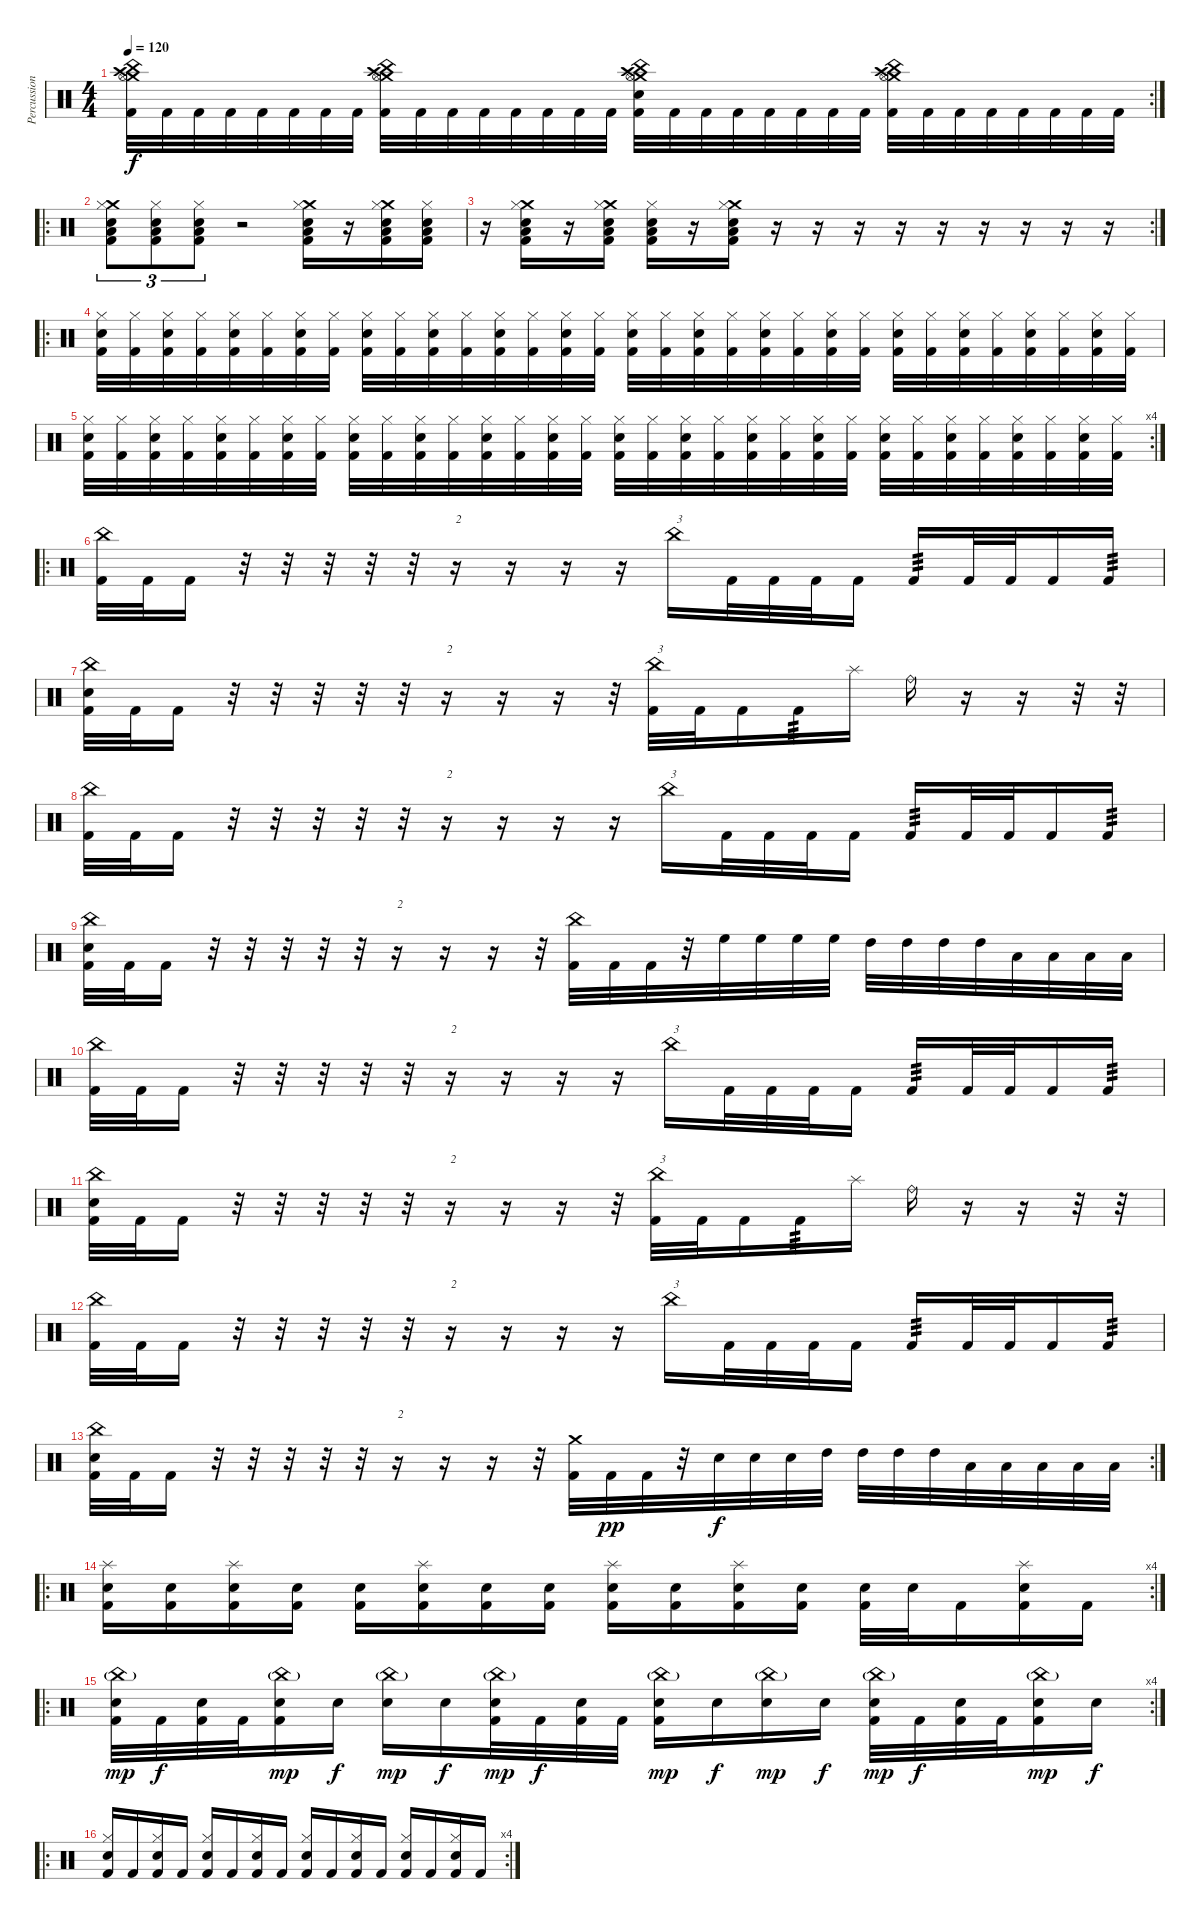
\track ("Percussions" "Percussion") {instrument percussion}
\staff {score}
\articulation defaults
\rc 2
\ts (4 4)
\tempo 120
\clef neutral
\ks c
("Crash medium (hit)" "Crash high (hit)" "China (hit)" "Hi-Hat (open)" "Kick (hit) 2").32{dy f} "Kick (hit) 2".32 "Kick (hit) 2".32 "Kick (hit) 2".32 "Kick (hit) 2".32 "Kick (hit) 2".32 "Kick (hit) 2".32 "Kick (hit) 2".32 ("Crash medium (hit)" "Crash high (hit)" "China (hit)" "Hi-Hat (open)" "Kick (hit) 2").32 "Kick (hit) 2".32 "Kick (hit) 2".32 "Kick (hit) 2".32 "Kick (hit) 2".32 "Kick (hit) 2".32 "Kick (hit) 2".32 "Kick (hit) 2".32 ("Crash medium (hit)" "Crash high (hit)" "China (hit)" "Hi-Hat (open)" "Electric Snare (hit)" "Kick (hit) 2").32 "Kick (hit) 2".32 "Kick (hit) 2".32 "Kick (hit) 2".32 "Kick (hit) 2".32 "Kick (hit) 2".32 "Kick (hit) 2".32 "Kick (hit) 2".32 ("Crash medium (hit)" "Crash high (hit)" "China (hit)" "Hi-Hat (open)" "Kick (hit) 2").32 "Kick (hit) 2".32 "Kick (hit) 2".32 "Kick (hit) 2".32 "Kick (hit) 2".32 "Kick (hit) 2".32 "Kick (hit) 2".32 "Kick (hit) 2".32 |
\ro
("Crash medium (hit)" "Low Floor Tom (hit)" "Hi-Hat (closed)" "Electric Snare (hit)" "Kick (hit) 2").8{tu (3 2)} ("Low Floor Tom (hit)" "Hi-Hat (closed)" "Electric Snare (hit)" "Kick (hit) 2").8{tu (3 2)} ("Low Floor Tom (hit)" "Hi-Hat (closed)" "Electric Snare (hit)" "Kick (hit) 2").8{tu (3 2)} r.2 ("Crash medium (hit)" "Low Floor Tom (hit)" "Hi-Hat (closed)" "Electric Snare (hit)" "Kick (hit) 2").16 r.16 ("Crash medium (hit)" "Low Floor Tom (hit)" "Hi-Hat (closed)" "Electric Snare (hit)" "Kick (hit) 2").16 ("Low Floor Tom (hit)" "Hi-Hat (closed)" "Electric Snare (hit)" "Kick (hit) 2").16 |
\rc 2
r.16 ("Crash medium (hit)" "Low Floor Tom (hit)" "Hi-Hat (closed)" "Electric Snare (hit)" "Kick (hit) 2").16 r.16 ("Crash medium (hit)" "Low Floor Tom (hit)" "Hi-Hat (closed)" "Electric Snare (hit)" "Kick (hit) 2").16 ("Low Floor Tom (hit)" "Hi-Hat (closed)" "Electric Snare (hit)" "Kick (hit) 2").16 r.16 ("Crash medium (hit)" "Low Floor Tom (hit)" "Hi-Hat (closed)" "Electric Snare (hit)" "Kick (hit) 2").16 r.16 r.16 r.16 r.16 r.16 r.16 r.16 r.16 r.16 |
\ro
("Kick (hit) 2" "Electric Snare (hit)" "Hi-Hat (closed)").32 ("Kick (hit) 2" "Hi-Hat (closed)").32 ("Kick (hit) 2" "Electric Snare (hit)" "Hi-Hat (closed)").32 ("Kick (hit) 2" "Hi-Hat (closed)").32 ("Kick (hit) 2" "Electric Snare (hit)" "Hi-Hat (closed)").32 ("Kick (hit) 2" "Hi-Hat (closed)").32 ("Kick (hit) 2" "Electric Snare (hit)" "Hi-Hat (closed)").32 ("Kick (hit) 2" "Hi-Hat (closed)").32 ("Kick (hit) 2" "Electric Snare (hit)" "Hi-Hat (closed)").32 ("Kick (hit) 2" "Hi-Hat (closed)").32 ("Kick (hit) 2" "Electric Snare (hit)" "Hi-Hat (closed)").32 ("Kick (hit) 2" "Hi-Hat (closed)").32 ("Kick (hit) 2" "Electric Snare (hit)" "Hi-Hat (closed)").32 ("Kick (hit) 2" "Hi-Hat (closed)").32 ("Kick (hit) 2" "Electric Snare (hit)" "Hi-Hat (closed)").32 ("Kick (hit) 2" "Hi-Hat (closed)").32 ("Kick (hit) 2" "Electric Snare (hit)" "Hi-Hat (closed)").32 ("Kick (hit) 2" "Hi-Hat (closed)").32 ("Kick (hit) 2" "Electric Snare (hit)" "Hi-Hat (closed)").32 ("Kick (hit) 2" "Hi-Hat (closed)").32 ("Kick (hit) 2" "Electric Snare (hit)" "Hi-Hat (closed)").32 ("Kick (hit) 2" "Hi-Hat (closed)").32 ("Kick (hit) 2" "Electric Snare (hit)" "Hi-Hat (closed)").32 ("Kick (hit) 2" "Hi-Hat (closed)").32 ("Kick (hit) 2" "Electric Snare (hit)" "Hi-Hat (closed)").32 ("Kick (hit) 2" "Hi-Hat (closed)").32 ("Kick (hit) 2" "Electric Snare (hit)" "Hi-Hat (closed)").32 ("Kick (hit) 2" "Hi-Hat (closed)").32 ("Kick (hit) 2" "Electric Snare (hit)" "Hi-Hat (closed)").32 ("Kick (hit) 2" "Hi-Hat (closed)").32 ("Kick (hit) 2" "Electric Snare (hit)" "Hi-Hat (closed)").32 ("Kick (hit) 2" "Hi-Hat (closed)").32 |
\rc 4
("Kick (hit) 2" "Electric Snare (hit)" "Hi-Hat (closed)").32 ("Kick (hit) 2" "Hi-Hat (closed)").32 ("Kick (hit) 2" "Electric Snare (hit)" "Hi-Hat (closed)").32 ("Kick (hit) 2" "Hi-Hat (closed)").32 ("Kick (hit) 2" "Electric Snare (hit)" "Hi-Hat (closed)").32 ("Kick (hit) 2" "Hi-Hat (closed)").32 ("Kick (hit) 2" "Electric Snare (hit)" "Hi-Hat (closed)").32 ("Kick (hit) 2" "Hi-Hat (closed)").32 ("Kick (hit) 2" "Electric Snare (hit)" "Hi-Hat (closed)").32 ("Kick (hit) 2" "Hi-Hat (closed)").32 ("Kick (hit) 2" "Electric Snare (hit)" "Hi-Hat (closed)").32 ("Kick (hit) 2" "Hi-Hat (closed)").32 ("Kick (hit) 2" "Electric Snare (hit)" "Hi-Hat (closed)").32 ("Kick (hit) 2" "Hi-Hat (closed)").32 ("Kick (hit) 2" "Electric Snare (hit)" "Hi-Hat (closed)").32 ("Kick (hit) 2" "Hi-Hat (closed)").32 ("Kick (hit) 2" "Electric Snare (hit)" "Hi-Hat (closed)").32 ("Kick (hit) 2" "Hi-Hat (closed)").32 ("Kick (hit) 2" "Electric Snare (hit)" "Hi-Hat (closed)").32 ("Kick (hit) 2" "Hi-Hat (closed)").32 ("Kick (hit) 2" "Electric Snare (hit)" "Hi-Hat (closed)").32 ("Kick (hit) 2" "Hi-Hat (closed)").32 ("Kick (hit) 2" "Electric Snare (hit)" "Hi-Hat (closed)").32 ("Kick (hit) 2" "Hi-Hat (closed)").32 ("Kick (hit) 2" "Electric Snare (hit)" "Hi-Hat (closed)").32 ("Kick (hit) 2" "Hi-Hat (closed)").32 ("Kick (hit) 2" "Electric Snare (hit)" "Hi-Hat (closed)").32 ("Kick (hit) 2" "Hi-Hat (closed)").32 ("Kick (hit) 2" "Electric Snare (hit)" "Hi-Hat (closed)").32 ("Kick (hit) 2" "Hi-Hat (closed)").32 ("Kick (hit) 2" "Electric Snare (hit)" "Hi-Hat (closed)").32 ("Kick (hit) 2" "Hi-Hat (closed)").32 |
\ro
("China (hit)" "Kick (hit) 2").32 "Kick (hit) 2".32 "Kick (hit) 2".16 r.32{volume 0} r.32 r.32 r.32 r.32 r.16{txt "2"} r.16 r.16 r.16 "China (hit)".16{txt "3" volume 13} "Kick (hit) 2".32 "Kick (hit) 2".32 "Kick (hit) 2".32 "Kick (hit) 2".16 "Kick (hit) 2".16{tp 3} "Kick (hit) 2".32 "Kick (hit) 2".32 "Kick (hit) 2".16 "Kick (hit) 2".16{tp 3} |
("China (hit)" "Electric Snare (hit)" "Kick (hit) 2").32 "Kick (hit) 2".32 "Kick (hit) 2".16 r.32 r.32 r.32 r.32 r.32 r.16{txt "2"} r.16 r.16 r.32 ("China (hit)" "Kick (hit) 2").32{txt "3"} "Kick (hit) 2".32 "Kick (hit) 2".16 "Kick (hit) 2".16{tp 3} "Splash (hit)".16 "Ride (bell)".16 r.16 r.16 r.32 r.32 |
("China (hit)" "Kick (hit) 2").32 "Kick (hit) 2".32 "Kick (hit) 2".16 r.32{volume 0} r.32 r.32 r.32 r.32 r.16{txt "2"} r.16 r.16 r.16 "China (hit)".16{txt "3" volume 13} "Kick (hit) 2".32 "Kick (hit) 2".32 "Kick (hit) 2".32 "Kick (hit) 2".16 "Kick (hit) 2".16{tp 3} "Kick (hit) 2".32 "Kick (hit) 2".32 "Kick (hit) 2".16 "Kick (hit) 2".16{tp 3} |
("China (hit)" "Electric Snare (hit)" "Kick (hit) 2").32 "Kick (hit) 2".32 "Kick (hit) 2".16 r.32 r.32 r.32 r.32 r.32 r.16{txt "2"} r.16 r.16 r.32 ("China (hit)" "Kick (hit) 2").32 "Kick (hit) 2".32 "Kick (hit) 2".32 r.32 "High Floor Tom (hit)".32 "High Floor Tom (hit)".32 "High Floor Tom (hit)".32 "High Floor Tom (hit)".32 "High Tom (hit)".32 "High Tom (hit)".32 "High Tom (hit)".32 "High Tom (hit)".32 "Low Tom (hit)".32 "Low Tom (hit)".32 "Low Tom (hit)".32 "Low Tom (hit)".32 |
("China (hit)" "Kick (hit) 2").32 "Kick (hit) 2".32 "Kick (hit) 2".16 r.32{volume 0} r.32 r.32 r.32 r.32 r.16{txt "2"} r.16 r.16 r.16 "China (hit)".16{txt "3" volume 13} "Kick (hit) 2".32 "Kick (hit) 2".32 "Kick (hit) 2".32 "Kick (hit) 2".16 "Kick (hit) 2".16{tp 3} "Kick (hit) 2".32 "Kick (hit) 2".32 "Kick (hit) 2".16 "Kick (hit) 2".16{tp 3} |
("China (hit)" "Electric Snare (hit)" "Kick (hit) 2").32 "Kick (hit) 2".32 "Kick (hit) 2".16 r.32 r.32 r.32 r.32 r.32 r.16{txt "2"} r.16 r.16 r.32 ("China (hit)" "Kick (hit) 2").32{txt "3"} "Kick (hit) 2".32 "Kick (hit) 2".16 "Kick (hit) 2".16{tp 3} "Splash (hit)".16 "Ride (bell)".16 r.16 r.16 r.32 r.32 |
("China (hit)" "Kick (hit) 2").32 "Kick (hit) 2".32 "Kick (hit) 2".16 r.32{volume 0} r.32 r.32 r.32 r.32 r.16{txt "2"} r.16 r.16 r.16 "China (hit)".16{txt "3" volume 13} "Kick (hit) 2".32 "Kick (hit) 2".32 "Kick (hit) 2".32 "Kick (hit) 2".16 "Kick (hit) 2".16{tp 3} "Kick (hit) 2".32 "Kick (hit) 2".32 "Kick (hit) 2".16 "Kick (hit) 2".16{tp 3} |
\rc 2
("China (hit)" "Electric Snare (hit)" "Kick (hit) 2").32 "Kick (hit) 2".32 "Kick (hit) 2".16 r.32 r.32 r.32 r.32 r.32 r.16{txt "2"} r.16 r.16 r.32 ("Crash medium (hit)" "Kick (hit) 2").32 "Kick (hit) 2".32{dy pp} "Kick (hit) 2".32 r.32 "Electric Snare (hit)".32{dy f} "Electric Snare (hit)".32 "Electric Snare (hit)".32 "High Tom (hit)".32 "High Tom (hit)".32 "High Tom (hit)".32 "High Tom (hit)".32 "Low Tom (hit)".32 "Low Tom (hit)".32 "Low Tom (hit)".32 "Low Tom (hit)".32 "Low Tom (hit)".32 |
\ro
\rc 4
("Splash (hit)" "Electric Snare (hit)" "Kick (hit) 2").16 ("Electric Snare (hit)" "Kick (hit) 2").16 ("Splash (hit)" "Electric Snare (hit)" "Kick (hit) 2").16 ("Electric Snare (hit)" "Kick (hit) 2").16 ("Electric Snare (hit)" "Kick (hit) 2").16 ("Splash (hit)" "Electric Snare (hit)" "Kick (hit) 2").16 ("Electric Snare (hit)" "Kick (hit) 2").16 ("Electric Snare (hit)" "Kick (hit) 2").16 ("Splash (hit)" "Electric Snare (hit)" "Kick (hit) 2").16 ("Electric Snare (hit)" "Kick (hit) 2").16 ("Splash (hit)" "Electric Snare (hit)" "Kick (hit) 2").16 ("Electric Snare (hit)" "Kick (hit) 2").16 ("Electric Snare (hit)" "Kick (hit) 2").32 "Electric Snare (hit)".32 "Kick (hit) 2".16 ("Splash (hit)" "Electric Snare (hit)" "Kick (hit) 2").16 "Kick (hit) 2".16 |
\ro
\rc 4
("China (hit)"{g} "Electric Snare (hit)" "Kick (hit) 2").32{dy mp} "Kick (hit) 2".32{dy f} ("Electric Snare (hit)" "Kick (hit) 2").32 "Kick (hit) 2".32 ("China (hit)"{g} "Electric Snare (hit)" "Kick (hit) 2").16{dy mp} "Electric Snare (hit)".16{dy f} ("China (hit)"{g} "Electric Snare (hit)").16{dy mp} "Electric Snare (hit)".16{dy f} ("China (hit)"{g} "Electric Snare (hit)" "Kick (hit) 2").32{dy mp} "Kick (hit) 2".32{dy f} ("Electric Snare (hit)" "Kick (hit) 2").32 "Kick (hit) 2".32 ("China (hit)"{g} "Electric Snare (hit)" "Kick (hit) 2").16{dy mp} "Electric Snare (hit)".16{dy f} ("China (hit)"{g} "Electric Snare (hit)").16{dy mp} "Electric Snare (hit)".16{dy f} ("China (hit)"{g} "Electric Snare (hit)" "Kick (hit) 2").32{dy mp} "Kick (hit) 2".32{dy f} ("Electric Snare (hit)" "Kick (hit) 2").32 "Kick (hit) 2".32 ("China (hit)"{g} "Electric Snare (hit)" "Kick (hit) 2").16{dy mp} "Electric Snare (hit)".16{dy f} |
\ro
\rc 4
("Hi-Hat (closed)" "Snare (hit) 2" "Kick (hit) 2").16 "Kick (hit) 2".16 ("Hi-Hat (closed)" "Snare (hit) 2" "Kick (hit) 2").16 "Kick (hit) 2".16 ("Hi-Hat (closed)" "Snare (hit) 2" "Kick (hit) 2").16 "Kick (hit) 2".16 ("Hi-Hat (closed)" "Snare (hit) 2" "Kick (hit) 2").16 "Kick (hit) 2".16 ("Hi-Hat (closed)" "Snare (hit) 2" "Kick (hit) 2").16 "Kick (hit) 2".16 ("Hi-Hat (closed)" "Snare (hit) 2" "Kick (hit) 2").16 "Kick (hit) 2".16 ("Hi-Hat (closed)" "Snare (hit) 2" "Kick (hit) 2").16 "Kick (hit) 2".16 ("Hi-Hat (closed)" "Snare (hit) 2" "Kick (hit) 2").16 "Kick (hit) 2".16
